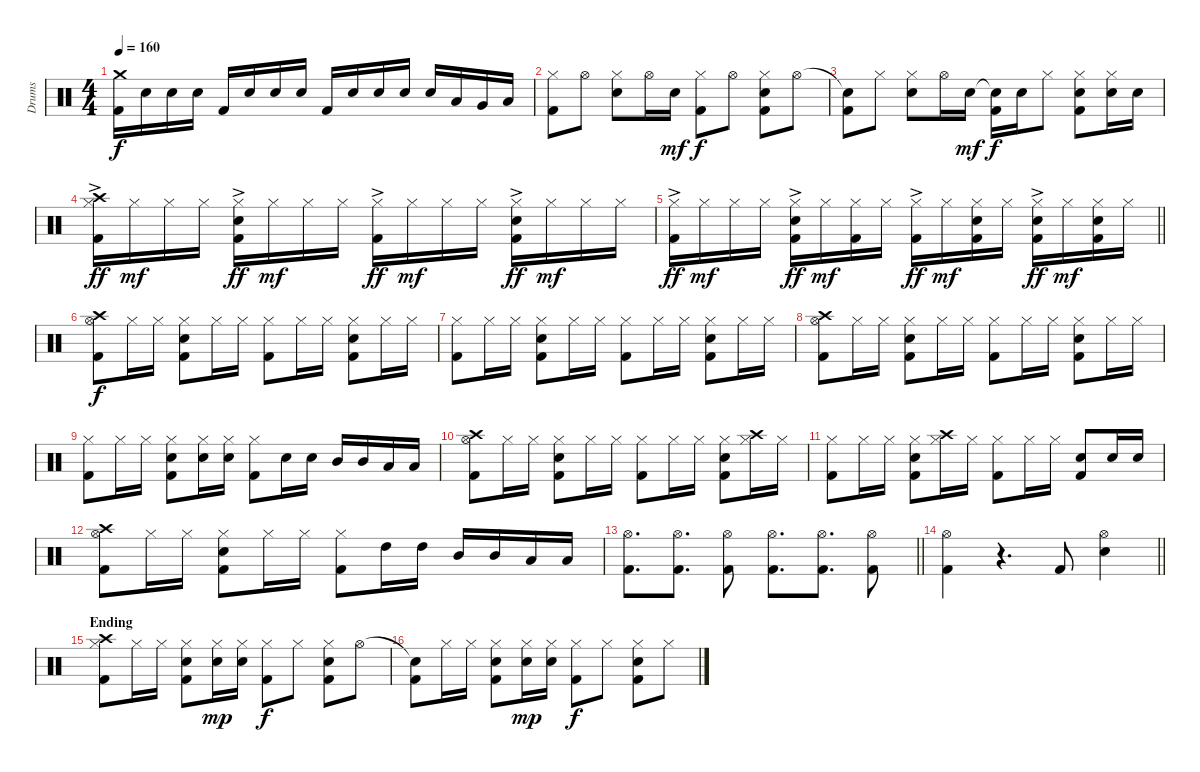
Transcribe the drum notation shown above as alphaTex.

\track ("Drums" "Drums") {instrument percussion}
\staff {score}
\articulation defaults
\ts (4 4)
\tempo 160
\clef neutral
\ks c
("Crash medium (hit)" "Kick (hit) 2").16{dy f} "Snare (hit) 2".16 "Snare (hit) 2".16 "Snare (hit) 2".16 "Kick (hit) 2".16 "Snare (hit) 2".16 "Snare (hit) 2".16 "Snare (hit) 2".16 "Kick (hit) 2".16 "Snare (hit) 2".16 "Snare (hit) 2".16 "Snare (hit) 2".16 "Snare (hit) 2".16 "Low Tom (hit)".16 "Very Low Tom (hit)".16 "Low Floor Tom (hit)".16 |
("Hi-Hat (closed)" "Kick (hit) 2").8 "Hi-Hat (open)".8 ("Hi-Hat (closed)" "Snare (hit) 2").8 "Hi-Hat (open)".16 "Snare (hit) 2".16{dy mf} ("Hi-Hat (closed)" "Kick (hit) 2").8{dy f} "Hi-Hat (open)".8 ("Hi-Hat (closed)" "Snare (hit) 2" "Kick (hit) 2").8 "Hi-Hat (open)".8 |
("Snare (hit)"{t} "Kick (hit) 2").8 "Hi-Hat (closed)".8 ("Hi-Hat (closed)" "Snare (hit) 2").8 "Hi-Hat (open)".16 "Snare (hit) 2".16{dy mf} ("Snare (hit)"{t} "Kick (hit) 2").16{dy f} "Snare (hit) 2".16 "Hi-Hat (closed)".8 ("Hi-Hat (closed)" "Snare (hit) 2" "Kick (hit) 2").8 ("Hi-Hat (closed)" "Snare (hit) 2").16 "Snare (hit) 2".16 |
("Hi-Hat (closed)"{ac} "Crash high (hit)" "Kick (hit) 2").16{dy ff} "Hi-Hat (closed)".16{dy mf} "Hi-Hat (closed)".16 "Hi-Hat (closed)".16 ("Hi-Hat (closed)"{ac} "Snare (hit) 2" "Kick (hit) 2").16{dy ff} "Hi-Hat (closed)".16{dy mf} "Hi-Hat (closed)".16 "Hi-Hat (closed)".16 ("Hi-Hat (closed)"{ac} "Kick (hit) 2").16{dy ff} "Hi-Hat (closed)".16{dy mf} "Hi-Hat (closed)".16 "Hi-Hat (closed)".16 ("Hi-Hat (closed)"{ac} "Snare (hit) 2" "Kick (hit) 2").16{dy ff} "Hi-Hat (closed)".16{dy mf} "Hi-Hat (closed)".16 "Hi-Hat (closed)".16 |
\barLineRight lightlight
("Hi-Hat (closed)"{ac} "Kick (hit) 2").16{dy ff} "Hi-Hat (closed)".16{dy mf} "Hi-Hat (closed)".16 "Hi-Hat (closed)".16 ("Hi-Hat (closed)"{ac} "Snare (hit) 2" "Kick (hit) 2").16{dy ff} "Hi-Hat (closed)".16{dy mf} ("Hi-Hat (closed)" "Kick (hit) 2").16 "Hi-Hat (closed)".16 ("Hi-Hat (closed)"{ac} "Kick (hit) 2").16{dy ff} "Hi-Hat (closed)".16{dy mf} ("Hi-Hat (closed)" "Snare (hit) 2" "Kick (hit) 2").16 "Hi-Hat (closed)".16 ("Hi-Hat (closed)"{ac} "Snare (hit) 2" "Kick (hit) 2").16{dy ff} "Hi-Hat (closed)".16{dy mf} ("Hi-Hat (closed)" "Snare (hit) 2" "Kick (hit) 2").16 "Hi-Hat (closed)".16 |
("Hi-Hat (open)" "Crash high (hit)" "Kick (hit) 2").8{dy f} "Hi-Hat (closed)".16 "Hi-Hat (closed)".16 ("Hi-Hat (closed)" "Snare (hit) 2" "Kick (hit) 2").8 "Hi-Hat (closed)".16 "Hi-Hat (closed)".16 ("Hi-Hat (closed)" "Kick (hit) 2").8 "Hi-Hat (closed)".16 "Hi-Hat (closed)".16 ("Hi-Hat (closed)" "Snare (hit) 2" "Kick (hit) 2").8 "Hi-Hat (closed)".16 "Hi-Hat (closed)".16 |
("Hi-Hat (closed)" "Kick (hit) 2").8 "Hi-Hat (closed)".16 "Hi-Hat (closed)".16 ("Hi-Hat (closed)" "Snare (hit) 2" "Kick (hit) 2").8 "Hi-Hat (closed)".16 "Hi-Hat (closed)".16 ("Hi-Hat (closed)" "Kick (hit) 2").8 "Hi-Hat (closed)".16 "Hi-Hat (closed)".16 ("Hi-Hat (closed)" "Snare (hit) 2" "Kick (hit) 2").8 "Hi-Hat (closed)".16 "Hi-Hat (closed)".16 |
("Hi-Hat (open)" "Crash high (hit)" "Kick (hit) 2").8 "Hi-Hat (closed)".16 "Hi-Hat (closed)".16 ("Hi-Hat (closed)" "Snare (hit) 2" "Kick (hit) 2").8 "Hi-Hat (closed)".16 "Hi-Hat (closed)".16 ("Hi-Hat (closed)" "Kick (hit) 2").8 "Hi-Hat (closed)".16 "Hi-Hat (closed)".16 ("Hi-Hat (closed)" "Snare (hit) 2" "Kick (hit) 2").8 "Hi-Hat (closed)".16 "Hi-Hat (closed)".16 |
("Hi-Hat (closed)" "Kick (hit) 2").8 "Hi-Hat (closed)".16 "Hi-Hat (closed)".16 ("Hi-Hat (closed)" "Snare (hit) 2" "Kick (hit) 2").8 ("Hi-Hat (closed)" "Snare (hit) 2").16 ("Hi-Hat (closed)" "Snare (hit) 2").16 ("Hi-Hat (closed)" "Kick (hit) 2").8 "Snare (hit) 2".16 "Snare (hit) 2".16 "Mid Tom (hit)".16 "Mid Tom (hit)".16 "Low Tom (hit)".16 "Low Tom (hit)".16 |
("Hi-Hat (open)" "Crash high (hit)" "Kick (hit) 2").8 "Hi-Hat (closed)".16 "Hi-Hat (closed)".16 ("Hi-Hat (closed)" "Snare (hit) 2" "Kick (hit) 2").8 "Hi-Hat (closed)".16 "Hi-Hat (closed)".16 ("Hi-Hat (closed)" "Kick (hit) 2").8 "Hi-Hat (closed)".16 "Hi-Hat (closed)".16 ("Hi-Hat (closed)" "Snare (hit) 2" "Kick (hit) 2").8 ("Hi-Hat (closed)" "Crash high (hit)").16 "Hi-Hat (closed)".16 |
("Hi-Hat (closed)" "Kick (hit) 2").8 "Hi-Hat (closed)".16 "Hi-Hat (closed)".16 ("Hi-Hat (closed)" "Snare (hit) 2" "Kick (hit) 2").8 ("Hi-Hat (closed)" "Crash high (hit)").16 "Hi-Hat (closed)".16 ("Hi-Hat (closed)" "Kick (hit) 2").8 "Hi-Hat (closed)".16 "Hi-Hat (closed)".16 ("Snare (hit) 2" "Kick (hit) 2").8 "Snare (hit) 2".16 "Snare (hit) 2".16 |
("Hi-Hat (open)" "Crash high (hit)" "Kick (hit) 2").8 "Hi-Hat (closed)".16 "Hi-Hat (closed)".16 ("Hi-Hat (closed)" "Snare (hit) 2" "Kick (hit) 2").8 "Hi-Hat (closed)".16 "Hi-Hat (closed)".16 ("Hi-Hat (closed)" "Kick (hit) 2").8 "High Tom (hit)".16 "High Tom (hit)".16 "Mid Tom (hit)".16 "Mid Tom (hit)".16 "Low Tom (hit)".16 "Low Tom (hit)".16 |
\barLineRight lightlight
("Hi-Hat (open)" "Kick (hit) 2").8{d} ("Hi-Hat (open)" "Kick (hit) 2").8{d} ("Hi-Hat (open)" "Kick (hit) 2").8 ("Hi-Hat (open)" "Kick (hit) 2").8{d} ("Hi-Hat (open)" "Kick (hit) 2").8{d} ("Hi-Hat (open)" "Kick (hit) 2").8 |
\barLineRight lightlight
("Hi-Hat (open)" "Kick (hit) 2").4 r.4{d} "Kick (hit) 2".8 ("Hi-Hat (open)" "Snare (hit) 2").4 |
\section ("" "Ending")
("Hi-Hat (closed)" "Crash high (hit)" "Kick (hit) 2").8 "Hi-Hat (closed)".16 "Hi-Hat (closed)".16 ("Hi-Hat (closed)" "Snare (hit) 2" "Kick (hit) 2").8 ("Hi-Hat (closed)" "Snare (hit) 2").16{dy mp} ("Hi-Hat (closed)" "Snare (hit) 2").16 ("Hi-Hat (closed)" "Kick (hit) 2").8{dy f} "Hi-Hat (closed)".8 ("Hi-Hat (closed)" "Snare (hit) 2" "Kick (hit) 2").8 "Hi-Hat (open)".8 |
("Snare (hit)"{t} "Kick (hit) 2").8 "Hi-Hat (closed)".16 "Hi-Hat (closed)".16 ("Hi-Hat (closed)" "Snare (hit) 2" "Kick (hit) 2").8 ("Hi-Hat (closed)" "Snare (hit) 2").16{dy mp} ("Hi-Hat (closed)" "Snare (hit) 2").16 ("Hi-Hat (closed)" "Kick (hit) 2").8{dy f} "Hi-Hat (closed)".8 ("Hi-Hat (closed)" "Snare (hit) 2" "Kick (hit) 2").8 "Hi-Hat (closed)".8
